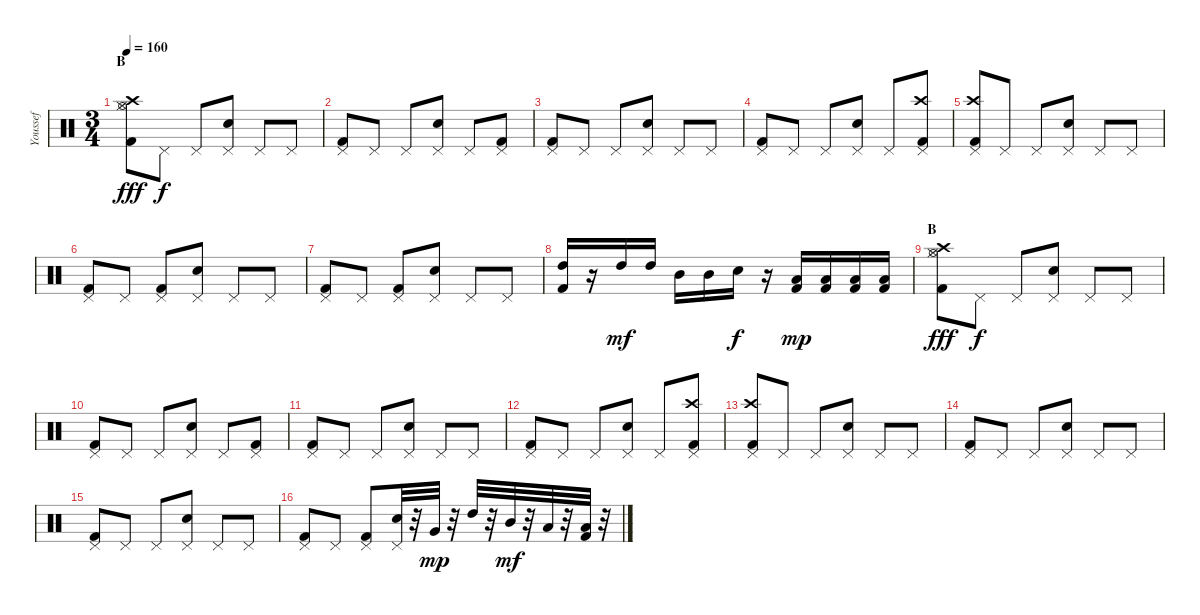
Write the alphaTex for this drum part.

\track ("Youssef" "Youssef") {instrument percussion}
\staff {score}
\articulation defaults
\ts (3 4)
\section ("" "B")
\tempo 160
\clef neutral
\ks c
("Kick (hit) 2" "Hi-Hat (closed)" "Hi-Hat (open)" "Crash high (hit)").8{dy fff} "Pedal Hi-Hat (hit)".8{dy f} "Pedal Hi-Hat (hit)".8 ("Electric Snare (hit)" "Pedal Hi-Hat (hit)").8 "Pedal Hi-Hat (hit)".8 "Pedal Hi-Hat (hit)".8 |
("Kick (hit) 2" "Pedal Hi-Hat (hit)").8 "Pedal Hi-Hat (hit)".8 "Pedal Hi-Hat (hit)".8 ("Electric Snare (hit)" "Pedal Hi-Hat (hit)").8 "Pedal Hi-Hat (hit)".8 ("Kick (hit) 2" "Pedal Hi-Hat (hit)").8 |
("Kick (hit) 2" "Pedal Hi-Hat (hit)").8 "Pedal Hi-Hat (hit)".8 "Pedal Hi-Hat (hit)".8 ("Electric Snare (hit)" "Pedal Hi-Hat (hit)").8 "Pedal Hi-Hat (hit)".8 "Pedal Hi-Hat (hit)".8 |
("Kick (hit) 2" "Pedal Hi-Hat (hit)").8 "Pedal Hi-Hat (hit)".8 "Pedal Hi-Hat (hit)".8 ("Electric Snare (hit)" "Pedal Hi-Hat (hit)").8 "Pedal Hi-Hat (hit)".8 ("Kick (hit) 2" "Crash high (hit)" "Pedal Hi-Hat (hit)").8 |
("Kick (hit) 2" "Crash high (hit)" "Pedal Hi-Hat (hit)").8 "Pedal Hi-Hat (hit)".8 "Pedal Hi-Hat (hit)".8 ("Electric Snare (hit)" "Pedal Hi-Hat (hit)").8 "Pedal Hi-Hat (hit)".8 "Pedal Hi-Hat (hit)".8 |
("Kick (hit) 2" "Pedal Hi-Hat (hit)").8 "Pedal Hi-Hat (hit)".8 ("Kick (hit) 2" "Pedal Hi-Hat (hit)").8 ("Electric Snare (hit)" "Pedal Hi-Hat (hit)").8 "Pedal Hi-Hat (hit)".8 "Pedal Hi-Hat (hit)".8 |
("Kick (hit) 2" "Pedal Hi-Hat (hit)").8 "Pedal Hi-Hat (hit)".8 ("Kick (hit) 2" "Pedal Hi-Hat (hit)").8 ("Electric Snare (hit)" "Pedal Hi-Hat (hit)").8 "Pedal Hi-Hat (hit)".8 "Pedal Hi-Hat (hit)".8 |
("Kick (hit) 2" "High Tom (hit)").16 r.16 "High Tom (hit)".16{dy mf} "High Tom (hit)".16 "Mid Tom (hit)".16 "Mid Tom (hit)".16 "Electric Snare (hit)".16{dy f} r.16 ("Kick (hit) 2" "Low Tom (hit)").16{dy mp} ("Kick (hit) 2" "Low Tom (hit)").16 ("Kick (hit) 2" "Low Tom (hit)").16 ("Kick (hit) 2" "Low Tom (hit)").16 |
\section ("" "B")
("Kick (hit) 2" "Hi-Hat (closed)" "Hi-Hat (open)" "Crash high (hit)").8{dy fff} "Pedal Hi-Hat (hit)".8{dy f} "Pedal Hi-Hat (hit)".8 ("Electric Snare (hit)" "Pedal Hi-Hat (hit)").8 "Pedal Hi-Hat (hit)".8 "Pedal Hi-Hat (hit)".8 |
("Kick (hit) 2" "Pedal Hi-Hat (hit)").8 "Pedal Hi-Hat (hit)".8 "Pedal Hi-Hat (hit)".8 ("Electric Snare (hit)" "Pedal Hi-Hat (hit)").8 "Pedal Hi-Hat (hit)".8 ("Kick (hit) 2" "Pedal Hi-Hat (hit)").8 |
("Kick (hit) 2" "Pedal Hi-Hat (hit)").8 "Pedal Hi-Hat (hit)".8 "Pedal Hi-Hat (hit)".8 ("Electric Snare (hit)" "Pedal Hi-Hat (hit)").8 "Pedal Hi-Hat (hit)".8 "Pedal Hi-Hat (hit)".8 |
("Kick (hit) 2" "Pedal Hi-Hat (hit)").8 "Pedal Hi-Hat (hit)".8 "Pedal Hi-Hat (hit)".8 ("Electric Snare (hit)" "Pedal Hi-Hat (hit)").8 "Pedal Hi-Hat (hit)".8 ("Kick (hit) 2" "Crash high (hit)" "Pedal Hi-Hat (hit)").8 |
("Kick (hit) 2" "Crash high (hit)" "Pedal Hi-Hat (hit)").8 "Pedal Hi-Hat (hit)".8 "Pedal Hi-Hat (hit)".8 ("Electric Snare (hit)" "Pedal Hi-Hat (hit)").8 "Pedal Hi-Hat (hit)".8 "Pedal Hi-Hat (hit)".8 |
("Kick (hit) 2" "Pedal Hi-Hat (hit)").8 "Pedal Hi-Hat (hit)".8 "Pedal Hi-Hat (hit)".8 ("Electric Snare (hit)" "Pedal Hi-Hat (hit)").8 "Pedal Hi-Hat (hit)".8 "Pedal Hi-Hat (hit)".8 |
("Kick (hit) 2" "Pedal Hi-Hat (hit)").8 "Pedal Hi-Hat (hit)".8 "Pedal Hi-Hat (hit)".8 ("Electric Snare (hit)" "Pedal Hi-Hat (hit)").8 "Pedal Hi-Hat (hit)".8 "Pedal Hi-Hat (hit)".8 |
("Kick (hit) 2" "Pedal Hi-Hat (hit)").8 "Pedal Hi-Hat (hit)".8 ("Kick (hit) 2" "Pedal Hi-Hat (hit)").8 ("Electric Snare (hit)" "Pedal Hi-Hat (hit)").32 r.32 "Very Low Tom (hit)".32{dy mp} r.32 "High Tom (hit)".32 r.32 "Mid Tom (hit)".32{dy mf} r.32 "Low Tom (hit)".32 r.32 ("Kick (hit) 2" "Low Tom (hit)").32 r.32
